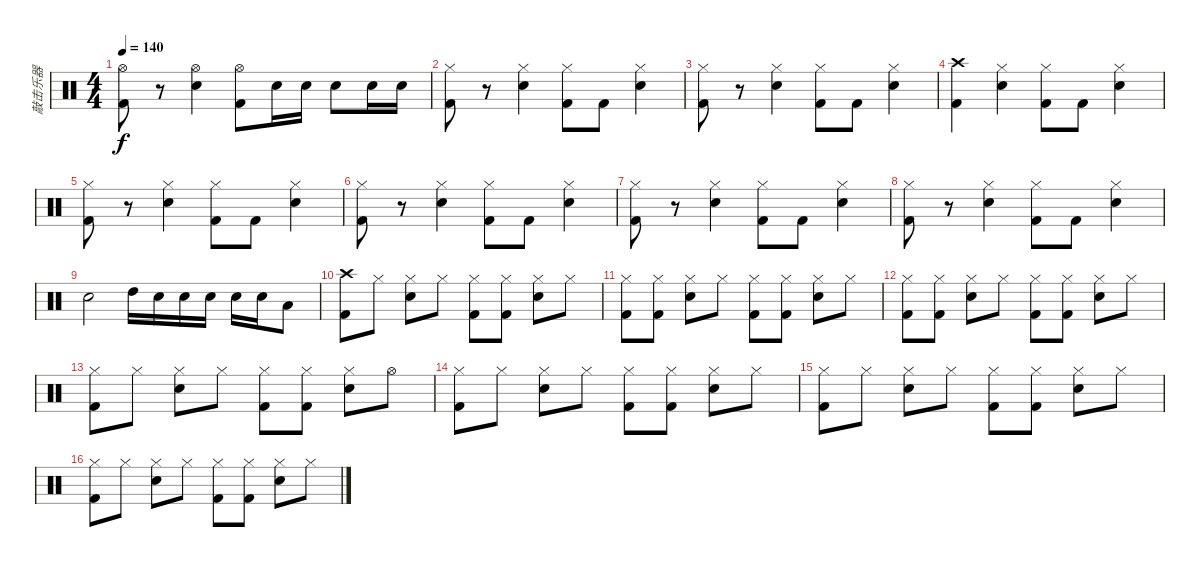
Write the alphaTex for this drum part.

\track ("敲击乐器" "敲击乐器") {instrument percussion}
\staff {score}
\articulation defaults
\ts (4 4)
\tempo 140
\clef neutral
\ks c
("Hi-Hat (open)" "Kick (hit) 2").8{dy f} r.8 ("Hi-Hat (open)" "Electric Snare (hit)").4 ("Hi-Hat (open)" "Kick (hit) 2").8 "Electric Snare (hit)".16 "Electric Snare (hit)".16 "Electric Snare (hit)".8 "Electric Snare (hit)".16 "Electric Snare (hit)".16 |
("Hi-Hat (closed)" "Kick (hit) 2").8 r.8 ("Hi-Hat (closed)" "Electric Snare (hit)").4 ("Hi-Hat (closed)" "Kick (hit) 2").8 "Kick (hit) 2".8 ("Hi-Hat (closed)" "Electric Snare (hit)").4 |
("Hi-Hat (closed)" "Kick (hit) 2").8 r.8 ("Hi-Hat (closed)" "Electric Snare (hit)").4 ("Hi-Hat (closed)" "Kick (hit) 2").8 "Kick (hit) 2".8 ("Hi-Hat (closed)" "Electric Snare (hit)").4 |
("Crash high (hit)" "Kick (hit) 2").4 ("Hi-Hat (closed)" "Electric Snare (hit)").4 ("Hi-Hat (closed)" "Kick (hit) 2").8 "Kick (hit) 2".8 ("Hi-Hat (closed)" "Electric Snare (hit)").4 |
("Hi-Hat (closed)" "Kick (hit) 2").8 r.8 ("Hi-Hat (closed)" "Electric Snare (hit)").4 ("Hi-Hat (closed)" "Kick (hit) 2").8 "Kick (hit) 2".8 ("Hi-Hat (closed)" "Electric Snare (hit)").4 |
("Hi-Hat (closed)" "Kick (hit) 2").8 r.8 ("Hi-Hat (closed)" "Electric Snare (hit)").4 ("Hi-Hat (closed)" "Kick (hit) 2").8 "Kick (hit) 2".8 ("Hi-Hat (closed)" "Electric Snare (hit)").4 |
("Hi-Hat (closed)" "Kick (hit) 2").8 r.8 ("Hi-Hat (closed)" "Electric Snare (hit)").4 ("Hi-Hat (closed)" "Kick (hit) 2").8 "Kick (hit) 2".8 ("Hi-Hat (closed)" "Electric Snare (hit)").4 |
("Hi-Hat (closed)" "Kick (hit) 2").8 r.8 ("Hi-Hat (closed)" "Electric Snare (hit)").4 ("Hi-Hat (closed)" "Kick (hit) 2").8 "Kick (hit) 2".8 ("Hi-Hat (closed)" "Electric Snare (hit)").4 |
"Electric Snare (hit)".2 "High Tom (hit)".16 "Electric Snare (hit)".16 "Electric Snare (hit)".16 "Electric Snare (hit)".16 "Electric Snare (hit)".16 "Electric Snare (hit)".16 "Low Tom (hit)".8 |
("Crash high (hit)" "Kick (hit) 2").8 "Hi-Hat (closed)".8 ("Hi-Hat (closed)" "Electric Snare (hit)").8 "Hi-Hat (closed)".8 ("Hi-Hat (closed)" "Kick (hit) 2").8 ("Hi-Hat (closed)" "Kick (hit) 2").8 ("Hi-Hat (closed)" "Electric Snare (hit)").8 "Hi-Hat (closed)".8 |
("Hi-Hat (closed)" "Kick (hit) 2").8 ("Hi-Hat (closed)" "Kick (hit) 2").8 ("Hi-Hat (closed)" "Electric Snare (hit)").8 "Hi-Hat (closed)".8 ("Hi-Hat (closed)" "Kick (hit) 2").8 ("Hi-Hat (closed)" "Kick (hit) 2").8 ("Hi-Hat (closed)" "Electric Snare (hit)").8 "Hi-Hat (closed)".8 |
("Hi-Hat (closed)" "Kick (hit) 2").8 ("Hi-Hat (closed)" "Kick (hit) 2").8 ("Hi-Hat (closed)" "Electric Snare (hit)").8 "Hi-Hat (closed)".8 ("Hi-Hat (closed)" "Kick (hit) 2").8 ("Hi-Hat (closed)" "Kick (hit) 2").8 ("Hi-Hat (closed)" "Electric Snare (hit)").8 "Hi-Hat (closed)".8 |
("Hi-Hat (closed)" "Kick (hit) 2").8 "Hi-Hat (closed)".8 ("Hi-Hat (closed)" "Electric Snare (hit)").8 "Hi-Hat (closed)".8 ("Hi-Hat (closed)" "Kick (hit) 2").8 ("Hi-Hat (closed)" "Kick (hit) 2").8 ("Hi-Hat (closed)" "Electric Snare (hit)").8 "Hi-Hat (open)".8 |
("Hi-Hat (closed)" "Kick (hit) 2").8 "Hi-Hat (closed)".8 ("Hi-Hat (closed)" "Electric Snare (hit)").8 "Hi-Hat (closed)".8 ("Hi-Hat (closed)" "Kick (hit) 2").8 ("Hi-Hat (closed)" "Kick (hit) 2").8 ("Hi-Hat (closed)" "Electric Snare (hit)").8 "Hi-Hat (closed)".8 |
("Hi-Hat (closed)" "Kick (hit) 2").8 "Hi-Hat (closed)".8 ("Hi-Hat (closed)" "Electric Snare (hit)").8 "Hi-Hat (closed)".8 ("Hi-Hat (closed)" "Kick (hit) 2").8 ("Hi-Hat (closed)" "Kick (hit) 2").8 ("Hi-Hat (closed)" "Electric Snare (hit)").8 "Hi-Hat (closed)".8 |
("Hi-Hat (closed)" "Kick (hit) 2").8 "Hi-Hat (closed)".8 ("Hi-Hat (closed)" "Electric Snare (hit)").8 "Hi-Hat (closed)".8 ("Hi-Hat (closed)" "Kick (hit) 2").8 ("Hi-Hat (closed)" "Kick (hit) 2").8 ("Hi-Hat (closed)" "Electric Snare (hit)").8 "Hi-Hat (closed)".8
